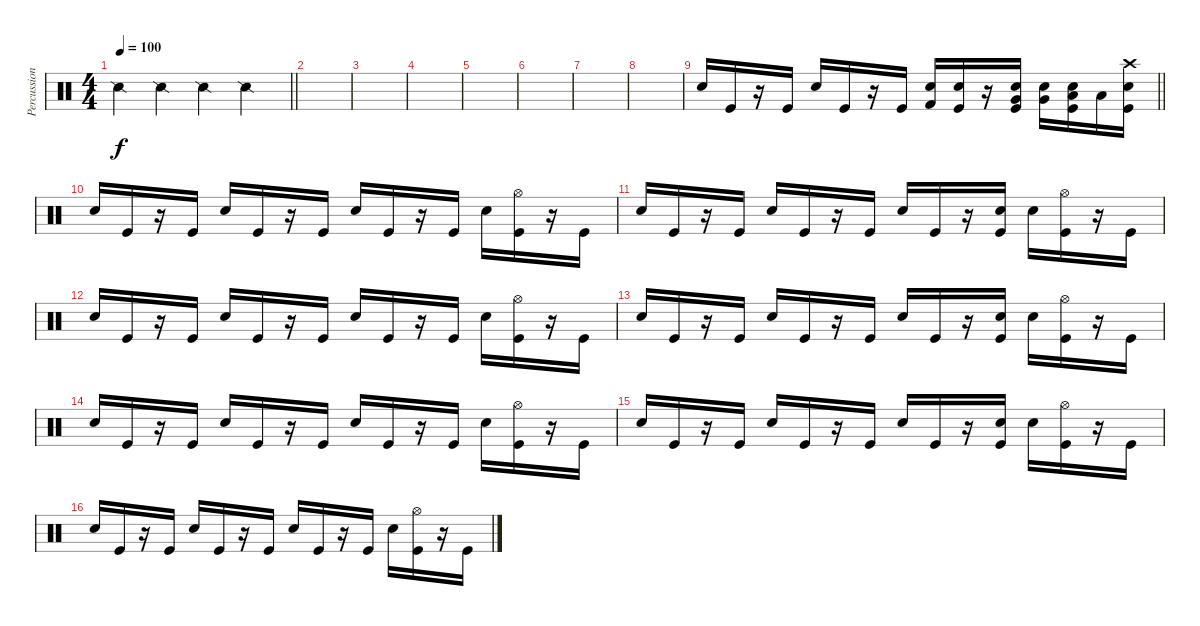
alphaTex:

\track ("Percussion" "Percussion") {instrument percussion}
\staff {score}
\articulation defaults
\ts (4 4)
\tempo 100
\clef neutral
\barLineRight lightlight
\ks c "Snare (side stick) 2".4{dy f} "Snare (side stick) 2".4 "Snare (side stick) 2".4 "Snare (side stick) 2".4
|
|
|
|
|
|
|
|
\barLineRight lightlight "Electric Snare (hit)".16 "Kick (hit)".16
r.16 "Kick (hit)".16 "Electric Snare (hit)".16 "Kick (hit)".16 r.16 "Kick (hit)".16 ("Electric Snare (hit)" "Kick (hit) 2").16 ("Electric Snare (hit)" "Kick (hit)").16 r.16 ("Electric Snare (hit)" "Kick (hit)" "Very Low Tom (hit)").16 ("Electric Snare (hit)" "Very Low Tom (hit)").16 ("Electric Snare (hit)" "Kick (hit)" "Low Tom (hit)").16 "Low Tom (hit)".16 ("Electric Snare (hit)" "Kick (hit)" "Crash high (hit)").16 |
"Electric Snare (hit)".16 "Kick (hit)".16 r.16 "Kick (hit)".16 "Electric Snare (hit)".16 "Kick (hit)".16 r.16 "Kick (hit)".16 "Electric Snare (hit)".16 "Kick (hit)".16 r.16 "Kick (hit)".16 "Electric Snare (hit)".16 ("Kick (hit)" "Hi-Hat (open)").16 r.16 "Kick (hit)".16 |
"Electric Snare (hit)".16 "Kick (hit)".16 r.16 "Kick (hit)".16 "Electric Snare (hit)".16 "Kick (hit)".16 r.16 "Kick (hit)".16 "Electric Snare (hit)".16 "Kick (hit)".16 r.16 ("Electric Snare (hit)" "Kick (hit)").16 "Electric Snare (hit)".16 ("Kick (hit)" "Hi-Hat (open)").16 r.16 "Kick (hit)".16 |
"Electric Snare (hit)".16 "Kick (hit)".16 r.16 "Kick (hit)".16 "Electric Snare (hit)".16 "Kick (hit)".16 r.16 "Kick (hit)".16 "Electric Snare (hit)".16 "Kick (hit)".16 r.16 "Kick (hit)".16 "Electric Snare (hit)".16 ("Kick (hit)" "Hi-Hat (open)").16 r.16 "Kick (hit)".16 |
"Electric Snare (hit)".16 "Kick (hit)".16 r.16 "Kick (hit)".16 "Electric Snare (hit)".16 "Kick (hit)".16 r.16 "Kick (hit)".16 "Electric Snare (hit)".16 "Kick (hit)".16 r.16 ("Electric Snare (hit)" "Kick (hit)").16 "Electric Snare (hit)".16 ("Kick (hit)" "Hi-Hat (open)").16 r.16 "Kick (hit)".16 |
"Electric Snare (hit)".16 "Kick (hit)".16 r.16 "Kick (hit)".16 "Electric Snare (hit)".16 "Kick (hit)".16 r.16 "Kick (hit)".16 "Electric Snare (hit)".16 "Kick (hit)".16 r.16 "Kick (hit)".16 "Electric Snare (hit)".16 ("Kick (hit)" "Hi-Hat (open)").16 r.16 "Kick (hit)".16 |
"Electric Snare (hit)".16 "Kick (hit)".16 r.16 "Kick (hit)".16 "Electric Snare (hit)".16 "Kick (hit)".16 r.16 "Kick (hit)".16 "Electric Snare (hit)".16 "Kick (hit)".16 r.16 ("Electric Snare (hit)" "Kick (hit)").16 "Electric Snare (hit)".16 ("Kick (hit)" "Hi-Hat (open)").16 r.16 "Kick (hit)".16 |
"Electric Snare (hit)".16 "Kick (hit)".16 r.16 "Kick (hit)".16 "Electric Snare (hit)".16 "Kick (hit)".16 r.16 "Kick (hit)".16 "Electric Snare (hit)".16 "Kick (hit)".16 r.16 "Kick (hit)".16 "Electric Snare (hit)".16 ("Kick (hit)" "Hi-Hat (open)").16 r.16 "Kick (hit)".16
